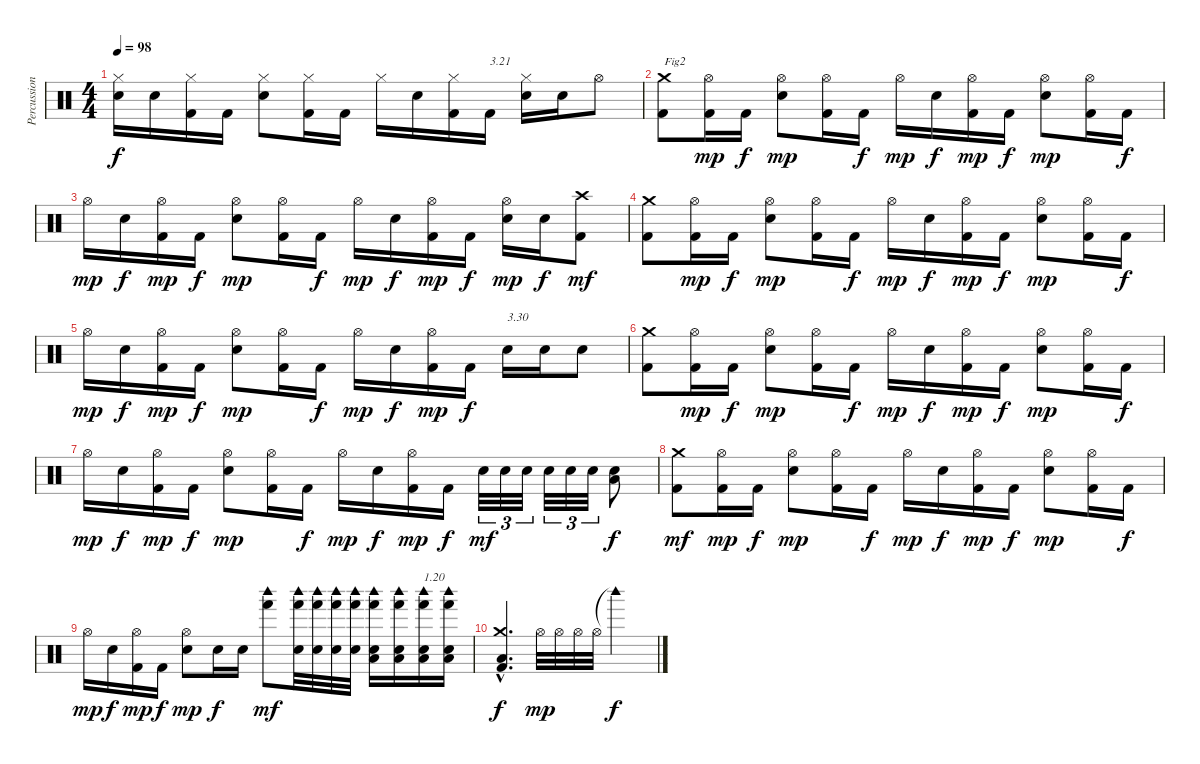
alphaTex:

\track ("Percussions" "Percussion") {instrument percussion}
\staff {score}
\articulation defaults
\ts (4 4)
\tempo 98
\clef neutral
\ks c
("Snare (hit)"{t} "Hi-Hat (closed)").16{dy f} "Electric Snare (hit)".16 ("Kick (hit) 2" "Hi-Hat (closed)").16 "Kick (hit) 2".16 ("Electric Snare (hit)" "Hi-Hat (closed)").8 ("Kick (hit) 2" "Hi-Hat (closed)").16 "Kick (hit) 2".16 "Hi-Hat (closed)".16 "Electric Snare (hit)".16 ("Kick (hit) 2" "Hi-Hat (closed)").16 "Kick (hit) 2".16{txt "3.21"} ("Electric Snare (hit)" "Hi-Hat (closed)").16 "Electric Snare (hit)".16 "Hi-Hat (open)".8 |
("Kick (hit) 2" "Crash medium (hit)").8{txt "Fig2"} ("Kick (hit) 2" "Hi-Hat (open)").16{dy mp} "Kick (hit) 2".16{dy f} ("Electric Snare (hit)" "Hi-Hat (open)").8{dy mp} ("Kick (hit) 2" "Hi-Hat (open)").16 "Kick (hit) 2".16{dy f} "Hi-Hat (open)".16{dy mp} "Electric Snare (hit)".16{dy f} ("Kick (hit) 2" "Hi-Hat (open)").16{dy mp} "Kick (hit) 2".16{dy f} ("Electric Snare (hit)" "Hi-Hat (open)").8{dy mp} ("Kick (hit) 2" "Hi-Hat (open)").16 "Kick (hit) 2".16{dy f} |
"Hi-Hat (open)".16{dy mp} "Electric Snare (hit)".16{dy f} ("Kick (hit) 2" "Hi-Hat (open)").16{dy mp} "Kick (hit) 2".16{dy f} ("Electric Snare (hit)" "Hi-Hat (open)").8{dy mp} ("Kick (hit) 2" "Hi-Hat (open)").16 "Kick (hit) 2".16{dy f} "Hi-Hat (open)".16{dy mp} "Electric Snare (hit)".16{dy f} ("Kick (hit) 2" "Hi-Hat (open)").16{dy mp} "Kick (hit) 2".16{dy f} ("Electric Snare (hit)" "Hi-Hat (open)").16{dy mp} "Electric Snare (hit)".16{dy f} ("Kick (hit) 2" "Crash high (hit)").8{dy mf} |
("Kick (hit) 2" "Crash medium (hit)").8 ("Kick (hit) 2" "Hi-Hat (open)").16{dy mp} "Kick (hit) 2".16{dy f} ("Electric Snare (hit)" "Hi-Hat (open)").8{dy mp} ("Kick (hit) 2" "Hi-Hat (open)").16 "Kick (hit) 2".16{dy f} "Hi-Hat (open)".16{dy mp} "Electric Snare (hit)".16{dy f} ("Kick (hit) 2" "Hi-Hat (open)").16{dy mp} "Kick (hit) 2".16{dy f} ("Electric Snare (hit)" "Hi-Hat (open)").8{dy mp} ("Kick (hit) 2" "Hi-Hat (open)").16 "Kick (hit) 2".16{dy f} |
"Hi-Hat (open)".16{dy mp} "Electric Snare (hit)".16{dy f} ("Kick (hit) 2" "Hi-Hat (open)").16{dy mp} "Kick (hit) 2".16{dy f} ("Electric Snare (hit)" "Hi-Hat (open)").8{dy mp} ("Kick (hit) 2" "Hi-Hat (open)").16 "Kick (hit) 2".16{dy f} "Hi-Hat (open)".16{dy mp} "Electric Snare (hit)".16{dy f} ("Kick (hit) 2" "Hi-Hat (open)").16{dy mp} "Kick (hit) 2".16{dy f} "Electric Snare (hit)".16{txt "3.30"} "Electric Snare (hit)".16 "Electric Snare (hit)".8 |
("Kick (hit) 2" "Crash medium (hit)").8 ("Kick (hit) 2" "Hi-Hat (open)").16{dy mp} "Kick (hit) 2".16{dy f} ("Electric Snare (hit)" "Hi-Hat (open)").8{dy mp} ("Kick (hit) 2" "Hi-Hat (open)").16 "Kick (hit) 2".16{dy f} "Hi-Hat (open)".16{dy mp} "Electric Snare (hit)".16{dy f} ("Kick (hit) 2" "Hi-Hat (open)").16{dy mp} "Kick (hit) 2".16{dy f} ("Electric Snare (hit)" "Hi-Hat (open)").8{dy mp} ("Kick (hit) 2" "Hi-Hat (open)").16 "Kick (hit) 2".16{dy f} |
"Hi-Hat (open)".16{dy mp} "Electric Snare (hit)".16{dy f} ("Kick (hit) 2" "Hi-Hat (open)").16{dy mp} "Kick (hit) 2".16{dy f} ("Electric Snare (hit)" "Hi-Hat (open)").8{dy mp} ("Kick (hit) 2" "Hi-Hat (open)").16 "Kick (hit) 2".16{dy f} "Hi-Hat (open)".16{dy mp} "Electric Snare (hit)".16{dy f} ("Kick (hit) 2" "Hi-Hat (open)").16{dy mp} "Kick (hit) 2".16{dy f} "Electric Snare (hit)".32{tu (3 2) dy mf} "Electric Snare (hit)".32{tu (3 2)} "Electric Snare (hit)".32{tu (3 2)} "Electric Snare (hit)".32{tu (3 2)} "Electric Snare (hit)".32{tu (3 2)} "Electric Snare (hit)".32{tu (3 2)} ("Electric Snare (hit)" "Low Floor Tom (hit)").8{dy f} |
("Kick (hit) 2" "Crash medium (hit)").8{dy mf} ("Kick (hit) 2" "Hi-Hat (open)").16{dy mp} "Kick (hit) 2".16{dy f} ("Electric Snare (hit)" "Hi-Hat (open)").8{dy mp} ("Kick (hit) 2" "Hi-Hat (open)").16 "Kick (hit) 2".16{dy f} "Hi-Hat (open)".16{dy mp} "Electric Snare (hit)".16{dy f} ("Kick (hit) 2" "Hi-Hat (open)").16{dy mp} "Kick (hit) 2".16{dy f} ("Electric Snare (hit)" "Hi-Hat (open)").8{dy mp} ("Kick (hit) 2" "Hi-Hat (open)").16 "Kick (hit) 2".16{dy f} |
"Hi-Hat (open)".16{dy mp} "Electric Snare (hit)".16{dy f} ("Kick (hit) 2" "Hi-Hat (open)").16{dy mp} "Kick (hit) 2".16{dy f} ("Electric Snare (hit)" "Hi-Hat (open)").8{dy mp} "Electric Snare (hit)".16{dy f} "Electric Snare (hit)".16 ("Hand (hit)" "Woodblock high (hit)").8{dy mf} ("Electric Snare (hit)" "Hand (hit)" "Woodblock high (hit)").32 ("Electric Snare (hit)" "Hand (hit)" "Woodblock high (hit)").32 ("Electric Snare (hit)" "Hand (hit)" "Woodblock high (hit)").32 ("Electric Snare (hit)" "Hand (hit)" "Woodblock high (hit)").32 ("Electric Snare (hit)" "Hand (hit)" "Woodblock high (hit)" "Low Tom (hit)").16 ("Electric Snare (hit)" "Hand (hit)" "Woodblock high (hit)" "Low Tom (hit)").16 ("Electric Snare (hit)" "Hand (hit)" "Woodblock high (hit)" "Low Floor Tom (hit)").16{txt "1.20"} ("Electric Snare (hit)" "Hand (hit)" "Woodblock high (hit)" "Low Floor Tom (hit)").16 |
("Kick (hit) 2"{hac} "Low Floor Tom (hit)"{hac} "Crash medium (hit)"{hac}).4{d dy f} "Hi-Hat (open)".32{dy mp} "Hi-Hat (open)".32 "Hi-Hat (open)".32 "Hi-Hat (open)".32 "Woodblock high (hit)"{t}.2{dy f}
